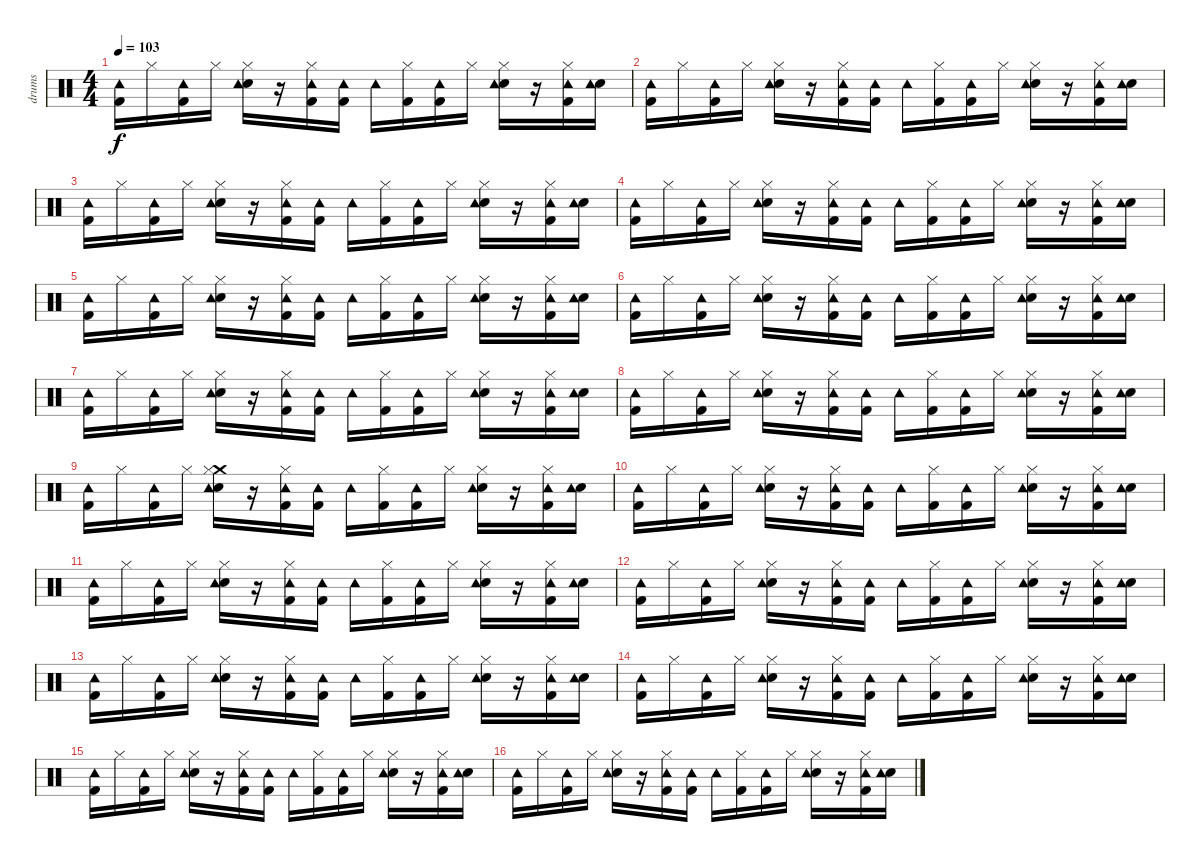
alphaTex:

\track ("drums" "drums") {instrument percussion}
\staff {score}
\articulation defaults
\ts (4 4)
\tempo 103
\clef neutral
\ks c
("Kick (hit) 2" "Tambourine (hit)").16{dy f} "Hi-Hat (closed)".16 ("Kick (hit) 2" "Tambourine (hit)").16 "Hi-Hat (closed)".16 ("Electric Snare (hit)" "Hi-Hat (closed)" "Tambourine (hit)").16 r.16 ("Kick (hit) 2" "Hi-Hat (closed)" "Tambourine (hit)").16 ("Kick (hit) 2" "Tambourine (hit)").16 "Tambourine (hit)".16 ("Kick (hit) 2" "Hi-Hat (closed)").16 ("Kick (hit) 2" "Tambourine (hit)").16 "Hi-Hat (closed)".16 ("Electric Snare (hit)" "Hi-Hat (closed)" "Tambourine (hit)").16 r.16 ("Kick (hit) 2" "Hi-Hat (closed)" "Tambourine (hit)").16 ("Electric Snare (hit)" "Tambourine (hit)").16 |
("Kick (hit) 2" "Tambourine (hit)").16 "Hi-Hat (closed)".16 ("Kick (hit) 2" "Tambourine (hit)").16 "Hi-Hat (closed)".16 ("Electric Snare (hit)" "Hi-Hat (closed)" "Tambourine (hit)").16 r.16 ("Kick (hit) 2" "Hi-Hat (closed)" "Tambourine (hit)").16 ("Kick (hit) 2" "Tambourine (hit)").16 "Tambourine (hit)".16 ("Kick (hit) 2" "Hi-Hat (closed)").16 ("Kick (hit) 2" "Tambourine (hit)").16 "Hi-Hat (closed)".16 ("Electric Snare (hit)" "Hi-Hat (closed)" "Tambourine (hit)").16 r.16 ("Kick (hit) 2" "Hi-Hat (closed)" "Tambourine (hit)").16 ("Electric Snare (hit)" "Tambourine (hit)").16 |
("Kick (hit) 2" "Tambourine (hit)").16 "Hi-Hat (closed)".16 ("Kick (hit) 2" "Tambourine (hit)").16 "Hi-Hat (closed)".16 ("Electric Snare (hit)" "Hi-Hat (closed)" "Tambourine (hit)").16 r.16 ("Kick (hit) 2" "Hi-Hat (closed)" "Tambourine (hit)").16 ("Kick (hit) 2" "Tambourine (hit)").16 "Tambourine (hit)".16 ("Kick (hit) 2" "Hi-Hat (closed)").16 ("Kick (hit) 2" "Tambourine (hit)").16 "Hi-Hat (closed)".16 ("Electric Snare (hit)" "Hi-Hat (closed)" "Tambourine (hit)").16 r.16 ("Kick (hit) 2" "Hi-Hat (closed)" "Tambourine (hit)").16 ("Electric Snare (hit)" "Tambourine (hit)").16 |
("Kick (hit) 2" "Tambourine (hit)").16 "Hi-Hat (closed)".16 ("Kick (hit) 2" "Tambourine (hit)").16 "Hi-Hat (closed)".16 ("Electric Snare (hit)" "Hi-Hat (closed)" "Tambourine (hit)").16 r.16 ("Kick (hit) 2" "Hi-Hat (closed)" "Tambourine (hit)").16 ("Kick (hit) 2" "Tambourine (hit)").16 "Tambourine (hit)".16 ("Kick (hit) 2" "Hi-Hat (closed)").16 ("Kick (hit) 2" "Tambourine (hit)").16 "Hi-Hat (closed)".16 ("Electric Snare (hit)" "Hi-Hat (closed)" "Tambourine (hit)").16 r.16 ("Kick (hit) 2" "Hi-Hat (closed)" "Tambourine (hit)").16 ("Electric Snare (hit)" "Tambourine (hit)").16 |
("Kick (hit) 2" "Tambourine (hit)").16 "Hi-Hat (closed)".16 ("Kick (hit) 2" "Tambourine (hit)").16 "Hi-Hat (closed)".16 ("Electric Snare (hit)" "Hi-Hat (closed)" "Tambourine (hit)").16 r.16 ("Kick (hit) 2" "Hi-Hat (closed)" "Tambourine (hit)").16 ("Kick (hit) 2" "Tambourine (hit)").16 "Tambourine (hit)".16 ("Kick (hit) 2" "Hi-Hat (closed)").16 ("Kick (hit) 2" "Tambourine (hit)").16 "Hi-Hat (closed)".16 ("Electric Snare (hit)" "Hi-Hat (closed)" "Tambourine (hit)").16 r.16 ("Kick (hit) 2" "Hi-Hat (closed)" "Tambourine (hit)").16 ("Electric Snare (hit)" "Tambourine (hit)").16 |
("Kick (hit) 2" "Tambourine (hit)").16 "Hi-Hat (closed)".16 ("Kick (hit) 2" "Tambourine (hit)").16 "Hi-Hat (closed)".16 ("Electric Snare (hit)" "Hi-Hat (closed)" "Tambourine (hit)").16 r.16 ("Kick (hit) 2" "Hi-Hat (closed)" "Tambourine (hit)").16 ("Kick (hit) 2" "Tambourine (hit)").16 "Tambourine (hit)".16 ("Kick (hit) 2" "Hi-Hat (closed)").16 ("Kick (hit) 2" "Tambourine (hit)").16 "Hi-Hat (closed)".16 ("Electric Snare (hit)" "Hi-Hat (closed)" "Tambourine (hit)").16 r.16 ("Kick (hit) 2" "Hi-Hat (closed)" "Tambourine (hit)").16 ("Electric Snare (hit)" "Tambourine (hit)").16 |
("Kick (hit) 2" "Tambourine (hit)").16 "Hi-Hat (closed)".16 ("Kick (hit) 2" "Tambourine (hit)").16 "Hi-Hat (closed)".16 ("Electric Snare (hit)" "Hi-Hat (closed)" "Tambourine (hit)").16 r.16 ("Kick (hit) 2" "Hi-Hat (closed)" "Tambourine (hit)").16 ("Kick (hit) 2" "Tambourine (hit)").16 "Tambourine (hit)".16 ("Kick (hit) 2" "Hi-Hat (closed)").16 ("Kick (hit) 2" "Tambourine (hit)").16 "Hi-Hat (closed)".16 ("Electric Snare (hit)" "Hi-Hat (closed)" "Tambourine (hit)").16 r.16 ("Kick (hit) 2" "Hi-Hat (closed)" "Tambourine (hit)").16 ("Electric Snare (hit)" "Tambourine (hit)").16 |
("Kick (hit) 2" "Tambourine (hit)").16 "Hi-Hat (closed)".16 ("Kick (hit) 2" "Tambourine (hit)").16 "Hi-Hat (closed)".16 ("Electric Snare (hit)" "Hi-Hat (closed)" "Tambourine (hit)").16 r.16 ("Kick (hit) 2" "Hi-Hat (closed)" "Tambourine (hit)").16 ("Kick (hit) 2" "Tambourine (hit)").16 "Tambourine (hit)".16 ("Kick (hit) 2" "Hi-Hat (closed)").16 ("Kick (hit) 2" "Tambourine (hit)").16 "Hi-Hat (closed)".16 ("Electric Snare (hit)" "Hi-Hat (closed)" "Tambourine (hit)").16 r.16 ("Kick (hit) 2" "Hi-Hat (closed)" "Tambourine (hit)").16 ("Electric Snare (hit)" "Tambourine (hit)").16 |
("Kick (hit) 2" "Tambourine (hit)").16 "Hi-Hat (closed)".16 ("Kick (hit) 2" "Tambourine (hit)").16 "Hi-Hat (closed)".16 ("Electric Snare (hit)" "Crash medium (hit)" "Hi-Hat (closed)" "Tambourine (hit)").16 r.16 ("Kick (hit) 2" "Hi-Hat (closed)" "Tambourine (hit)").16 ("Kick (hit) 2" "Tambourine (hit)").16 "Tambourine (hit)".16 ("Kick (hit) 2" "Hi-Hat (closed)").16 ("Kick (hit) 2" "Tambourine (hit)").16 "Hi-Hat (closed)".16 ("Electric Snare (hit)" "Hi-Hat (closed)" "Tambourine (hit)").16 r.16 ("Kick (hit) 2" "Hi-Hat (closed)" "Tambourine (hit)").16 ("Electric Snare (hit)" "Tambourine (hit)").16 |
("Kick (hit) 2" "Tambourine (hit)").16 "Hi-Hat (closed)".16 ("Kick (hit) 2" "Tambourine (hit)").16 "Hi-Hat (closed)".16 ("Electric Snare (hit)" "Hi-Hat (closed)" "Tambourine (hit)").16 r.16 ("Kick (hit) 2" "Hi-Hat (closed)" "Tambourine (hit)").16 ("Kick (hit) 2" "Tambourine (hit)").16 "Tambourine (hit)".16 ("Kick (hit) 2" "Hi-Hat (closed)").16 ("Kick (hit) 2" "Tambourine (hit)").16 "Hi-Hat (closed)".16 ("Electric Snare (hit)" "Hi-Hat (closed)" "Tambourine (hit)").16 r.16 ("Kick (hit) 2" "Hi-Hat (closed)" "Tambourine (hit)").16 ("Electric Snare (hit)" "Tambourine (hit)").16 |
("Kick (hit) 2" "Tambourine (hit)").16 "Hi-Hat (closed)".16 ("Kick (hit) 2" "Tambourine (hit)").16 "Hi-Hat (closed)".16 ("Electric Snare (hit)" "Hi-Hat (closed)" "Tambourine (hit)").16 r.16 ("Kick (hit) 2" "Hi-Hat (closed)" "Tambourine (hit)").16 ("Kick (hit) 2" "Tambourine (hit)").16 "Tambourine (hit)".16 ("Kick (hit) 2" "Hi-Hat (closed)").16 ("Kick (hit) 2" "Tambourine (hit)").16 "Hi-Hat (closed)".16 ("Electric Snare (hit)" "Hi-Hat (closed)" "Tambourine (hit)").16 r.16 ("Kick (hit) 2" "Hi-Hat (closed)" "Tambourine (hit)").16 ("Electric Snare (hit)" "Tambourine (hit)").16 |
("Kick (hit) 2" "Tambourine (hit)").16 "Hi-Hat (closed)".16 ("Kick (hit) 2" "Tambourine (hit)").16 "Hi-Hat (closed)".16 ("Electric Snare (hit)" "Hi-Hat (closed)" "Tambourine (hit)").16 r.16 ("Kick (hit) 2" "Hi-Hat (closed)" "Tambourine (hit)").16 ("Kick (hit) 2" "Tambourine (hit)").16 "Tambourine (hit)".16 ("Kick (hit) 2" "Hi-Hat (closed)").16 ("Kick (hit) 2" "Tambourine (hit)").16 "Hi-Hat (closed)".16 ("Electric Snare (hit)" "Hi-Hat (closed)" "Tambourine (hit)").16 r.16 ("Kick (hit) 2" "Hi-Hat (closed)" "Tambourine (hit)").16 ("Electric Snare (hit)" "Tambourine (hit)").16 |
("Kick (hit) 2" "Tambourine (hit)").16 "Hi-Hat (closed)".16 ("Kick (hit) 2" "Tambourine (hit)").16 "Hi-Hat (closed)".16 ("Electric Snare (hit)" "Hi-Hat (closed)" "Tambourine (hit)").16 r.16 ("Kick (hit) 2" "Hi-Hat (closed)" "Tambourine (hit)").16 ("Kick (hit) 2" "Tambourine (hit)").16 "Tambourine (hit)".16 ("Kick (hit) 2" "Hi-Hat (closed)").16 ("Kick (hit) 2" "Tambourine (hit)").16 "Hi-Hat (closed)".16 ("Electric Snare (hit)" "Hi-Hat (closed)" "Tambourine (hit)").16 r.16 ("Kick (hit) 2" "Hi-Hat (closed)" "Tambourine (hit)").16 ("Electric Snare (hit)" "Tambourine (hit)").16 |
("Kick (hit) 2" "Tambourine (hit)").16 "Hi-Hat (closed)".16 ("Kick (hit) 2" "Tambourine (hit)").16 "Hi-Hat (closed)".16 ("Electric Snare (hit)" "Hi-Hat (closed)" "Tambourine (hit)").16 r.16 ("Kick (hit) 2" "Hi-Hat (closed)" "Tambourine (hit)").16 ("Kick (hit) 2" "Tambourine (hit)").16 "Tambourine (hit)".16 ("Kick (hit) 2" "Hi-Hat (closed)").16 ("Kick (hit) 2" "Tambourine (hit)").16 "Hi-Hat (closed)".16 ("Electric Snare (hit)" "Hi-Hat (closed)" "Tambourine (hit)").16 r.16 ("Kick (hit) 2" "Hi-Hat (closed)" "Tambourine (hit)").16 ("Electric Snare (hit)" "Tambourine (hit)").16 |
("Kick (hit) 2" "Tambourine (hit)").16 "Hi-Hat (closed)".16 ("Kick (hit) 2" "Tambourine (hit)").16 "Hi-Hat (closed)".16 ("Electric Snare (hit)" "Hi-Hat (closed)" "Tambourine (hit)").16 r.16 ("Kick (hit) 2" "Hi-Hat (closed)" "Tambourine (hit)").16 ("Kick (hit) 2" "Tambourine (hit)").16 "Tambourine (hit)".16 ("Kick (hit) 2" "Hi-Hat (closed)").16 ("Kick (hit) 2" "Tambourine (hit)").16 "Hi-Hat (closed)".16 ("Electric Snare (hit)" "Hi-Hat (closed)" "Tambourine (hit)").16 r.16 ("Kick (hit) 2" "Hi-Hat (closed)" "Tambourine (hit)").16 ("Electric Snare (hit)" "Tambourine (hit)").16 |
("Kick (hit) 2" "Tambourine (hit)").16 "Hi-Hat (closed)".16 ("Kick (hit) 2" "Tambourine (hit)").16 "Hi-Hat (closed)".16 ("Electric Snare (hit)" "Hi-Hat (closed)" "Tambourine (hit)").16 r.16 ("Kick (hit) 2" "Hi-Hat (closed)" "Tambourine (hit)").16 ("Kick (hit) 2" "Tambourine (hit)").16 "Tambourine (hit)".16 ("Kick (hit) 2" "Hi-Hat (closed)").16 ("Kick (hit) 2" "Tambourine (hit)").16 "Hi-Hat (closed)".16 ("Electric Snare (hit)" "Hi-Hat (closed)" "Tambourine (hit)").16 r.16 ("Kick (hit) 2" "Hi-Hat (closed)" "Tambourine (hit)").16 ("Electric Snare (hit)" "Tambourine (hit)").16
